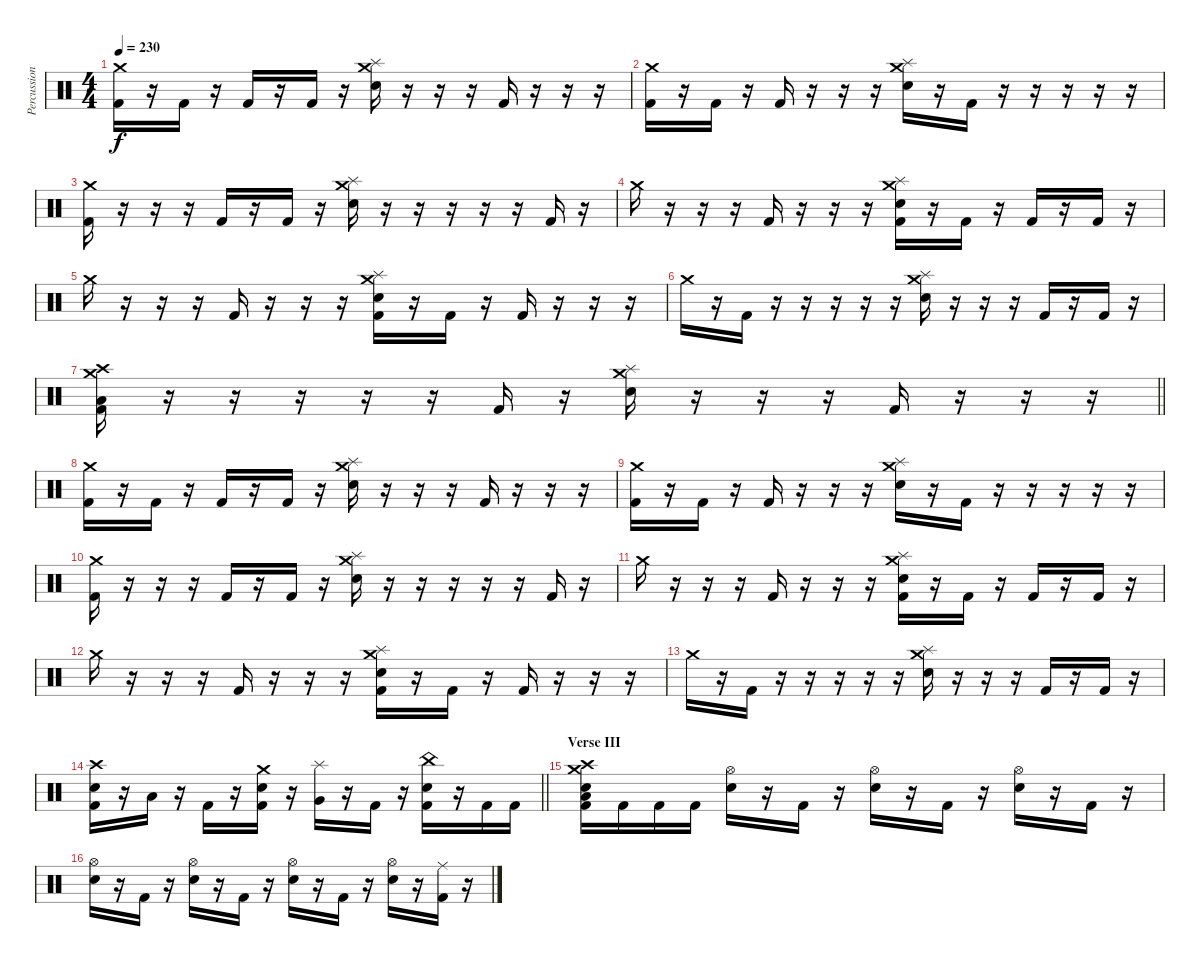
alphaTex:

\track ("Percussion" "Percussion") {instrument percussion}
\staff {score}
\articulation defaults
\ts (4 4)
\tempo 230
\clef neutral
\ks c
("Crash medium (hit)" "Kick (hit) 2").16{dy f} r.16 "Kick (hit) 2".16 r.16 "Kick (hit) 2".16 r.16 "Kick (hit) 2".16 r.16 ("Crash medium (hit)" "Splash (hit)" "Electric Snare (hit)").16 r.16 r.16 r.16 "Kick (hit) 2".16 r.16 r.16 r.16 |
("Crash medium (hit)" "Kick (hit) 2").16 r.16 "Kick (hit) 2".16 r.16 "Kick (hit) 2".16 r.16 r.16 r.16 ("Crash medium (hit)" "Splash (hit)" "Electric Snare (hit)").16 r.16 "Kick (hit) 2".16 r.16 r.16 r.16 r.16 r.16 |
("Crash medium (hit)" "Kick (hit) 2").16 r.16 r.16 r.16 "Kick (hit) 2".16 r.16 "Kick (hit) 2".16 r.16 ("Crash medium (hit)" "Splash (hit)" "Electric Snare (hit)").16 r.16 r.16 r.16 r.16 r.16 "Kick (hit) 2".16 r.16 |
"Crash medium (hit)".16 r.16 r.16 r.16 "Kick (hit) 2".16 r.16 r.16 r.16 ("Crash medium (hit)" "Splash (hit)" "Electric Snare (hit)" "Kick (hit) 2").16 r.16 "Kick (hit) 2".16 r.16 "Kick (hit) 2".16 r.16 "Kick (hit) 2".16 r.16 |
"Crash medium (hit)".16 r.16 r.16 r.16 "Kick (hit) 2".16 r.16 r.16 r.16 ("Crash medium (hit)" "Splash (hit)" "Electric Snare (hit)" "Kick (hit) 2").16 r.16 "Kick (hit) 2".16 r.16 "Kick (hit) 2".16 r.16 r.16 r.16 |
"Crash medium (hit)".16 r.16 "Kick (hit) 2".16 r.16 r.16 r.16 r.16 r.16 ("Crash medium (hit)" "Splash (hit)" "Electric Snare (hit)").16 r.16 r.16 r.16 "Kick (hit) 2".16 r.16 "Kick (hit) 2".16 r.16 |
\barLineRight lightlight
("Crash high (hit)" "Crash medium (hit)" "Low Floor Tom (hit)" "Kick (hit) 2").16 r.16 r.16 r.16 r.16 r.16 "Kick (hit) 2".16 r.16 ("Crash medium (hit)" "Splash (hit)" "Electric Snare (hit)").16 r.16 r.16 r.16 "Kick (hit) 2".16 r.16 r.16 r.16 |
("Crash medium (hit)" "Kick (hit) 2").16 r.16 "Kick (hit) 2".16 r.16 "Kick (hit) 2".16 r.16 "Kick (hit) 2".16 r.16 ("Crash medium (hit)" "Splash (hit)" "Electric Snare (hit)").16 r.16 r.16 r.16 "Kick (hit) 2".16 r.16 r.16 r.16 |
("Crash medium (hit)" "Kick (hit) 2").16 r.16 "Kick (hit) 2".16 r.16 "Kick (hit) 2".16 r.16 r.16 r.16 ("Crash medium (hit)" "Splash (hit)" "Electric Snare (hit)").16 r.16 "Kick (hit) 2".16 r.16 r.16 r.16 r.16 r.16 |
("Crash medium (hit)" "Kick (hit) 2").16 r.16 r.16 r.16 "Kick (hit) 2".16 r.16 "Kick (hit) 2".16 r.16 ("Crash medium (hit)" "Splash (hit)" "Electric Snare (hit)").16 r.16 r.16 r.16 r.16 r.16 "Kick (hit) 2".16 r.16 |
"Crash medium (hit)".16 r.16 r.16 r.16 "Kick (hit) 2".16 r.16 r.16 r.16 ("Crash medium (hit)" "Splash (hit)" "Electric Snare (hit)" "Kick (hit) 2").16 r.16 "Kick (hit) 2".16 r.16 "Kick (hit) 2".16 r.16 "Kick (hit) 2".16 r.16 |
"Crash medium (hit)".16 r.16 r.16 r.16 "Kick (hit) 2".16 r.16 r.16 r.16 ("Crash medium (hit)" "Splash (hit)" "Electric Snare (hit)" "Kick (hit) 2").16 r.16 "Kick (hit) 2".16 r.16 "Kick (hit) 2".16 r.16 r.16 r.16 |
"Crash medium (hit)".16 r.16 "Kick (hit) 2".16 r.16 r.16 r.16 r.16 r.16 ("Crash medium (hit)" "Splash (hit)" "Electric Snare (hit)").16 r.16 r.16 r.16 "Kick (hit) 2".16 r.16 "Kick (hit) 2".16 r.16 |
\barLineRight lightlight
("Crash high (hit)" "Electric Snare (hit)" "Kick (hit) 2").16 r.16 "Low Tom (hit)".16 r.16 "Kick (hit) 2".16 r.16 ("Crash medium (hit)" "Electric Snare (hit)" "Kick (hit) 2").16 r.16 ("Splash (hit)" "Very Low Tom (hit)").16 r.16 "Kick (hit) 2".16 r.16 ("China (hit)" "Electric Snare (hit)" "Kick (hit) 2").16 r.16 "Kick (hit) 2".16 "Kick (hit) 2".16 |
\section ("" "Verse III")
("Crash high (hit)" "Crash medium (hit)" "Electric Snare (hit)" "Low Floor Tom (hit)" "Kick (hit) 2").16 "Kick (hit) 2".16 "Kick (hit) 2".16 "Kick (hit) 2".16 ("Hi-Hat (open)" "Electric Snare (hit)").16 r.16 "Kick (hit) 2".16 r.16 ("Hi-Hat (open)" "Electric Snare (hit)").16 r.16 "Kick (hit) 2".16 r.16 ("Hi-Hat (open)" "Electric Snare (hit)").16 r.16 "Kick (hit) 2".16 r.16 |
("Hi-Hat (open)" "Electric Snare (hit)").16 r.16 "Kick (hit) 2".16 r.16 ("Hi-Hat (open)" "Electric Snare (hit)").16 r.16 "Kick (hit) 2".16 r.16 ("Hi-Hat (open)" "Electric Snare (hit)").16 r.16 "Kick (hit) 2".16 r.16 ("Hi-Hat (open)" "Electric Snare (hit)").16 r.16 ("Ride (middle)" "Kick (hit) 2").16 r.16
